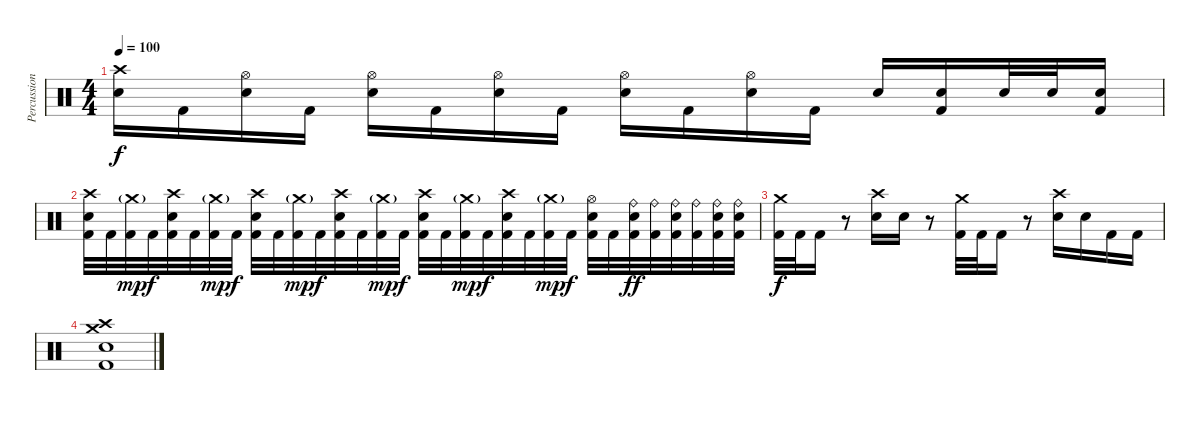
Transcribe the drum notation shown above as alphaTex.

\track ("Percussions" "Percussion") {instrument percussion}
\staff {score}
\articulation defaults
\ts (4 4)
\tempo 100
\clef neutral
\ks c
("Crash high (hit)" "Snare (hit) 2").16{dy f} "Kick (hit) 2".16 ("Hi-Hat (open)" "Snare (hit) 2").16 "Kick (hit) 2".16 ("Hi-Hat (open)" "Snare (hit) 2").16 "Kick (hit) 2".16 ("Hi-Hat (open)" "Snare (hit) 2").16 "Kick (hit) 2".16 ("Hi-Hat (open)" "Snare (hit) 2").16 "Kick (hit) 2".16 ("Hi-Hat (open)" "Snare (hit) 2").16 "Kick (hit) 2".16 "Snare (hit) 2".16 ("Snare (hit) 2" "Kick (hit) 2").16 "Snare (hit) 2".32 "Snare (hit) 2".32 ("Snare (hit) 2" "Kick (hit) 2").16 |
("Crash high (hit)" "Snare (hit) 2" "Kick (hit) 2").32 "Kick (hit) 2".32 ("Crash medium (hit)"{g} "Kick (hit) 2").32{dy mp} "Kick (hit) 2".32{dy f} ("Crash high (hit)" "Snare (hit) 2" "Kick (hit) 2").32 "Kick (hit) 2".32 ("Crash medium (hit)"{g} "Kick (hit) 2").32{dy mp} "Kick (hit) 2".32{dy f} ("Crash high (hit)" "Snare (hit) 2" "Kick (hit) 2").32 "Kick (hit) 2".32 ("Crash medium (hit)"{g} "Kick (hit) 2").32{dy mp} "Kick (hit) 2".32{dy f} ("Crash high (hit)" "Snare (hit) 2" "Kick (hit) 2").32 "Kick (hit) 2".32 ("Crash medium (hit)"{g} "Kick (hit) 2").32{dy mp} "Kick (hit) 2".32{dy f} ("Crash high (hit)" "Snare (hit) 2" "Kick (hit) 2").32 "Kick (hit) 2".32 ("Crash medium (hit)"{g} "Kick (hit) 2").32{dy mp} "Kick (hit) 2".32{dy f} ("Crash high (hit)" "Snare (hit) 2" "Kick (hit) 2").32 "Kick (hit) 2".32 ("Crash medium (hit)"{g} "Kick (hit) 2").32{dy mp} "Kick (hit) 2".32{dy f} ("Hi-Hat (open)" "Snare (hit) 2" "Kick (hit) 2").32 "Kick (hit) 2".32 ("Ride (bell)" "Snare (hit) 2" "Kick (hit) 2").32{dy ff} ("Ride (bell)" "Kick (hit) 2").32 ("Ride (bell)" "Snare (hit) 2" "Kick (hit) 2").32 ("Ride (bell)" "Kick (hit) 2").32 ("Ride (bell)" "Snare (hit) 2" "Kick (hit) 2").32 ("Ride (bell)" "Snare (hit) 2" "Kick (hit) 2").32 |
("Crash medium (hit)" "Kick (hit) 2").32{dy f} "Kick (hit) 2".32 "Kick (hit) 2".16 r.8 ("Crash high (hit)" "Snare (hit) 2").16 "Snare (hit) 2".16 r.8 ("Crash medium (hit)" "Kick (hit) 2").32 "Kick (hit) 2".32 "Kick (hit) 2".16 r.8 ("Crash high (hit)" "Snare (hit) 2").16 "Snare (hit) 2".16 "Kick (hit) 2".16 "Kick (hit) 2".16 |
("Crash medium (hit)" "Crash high (hit)" "Snare (hit) 2" "Kick (hit) 2").1
